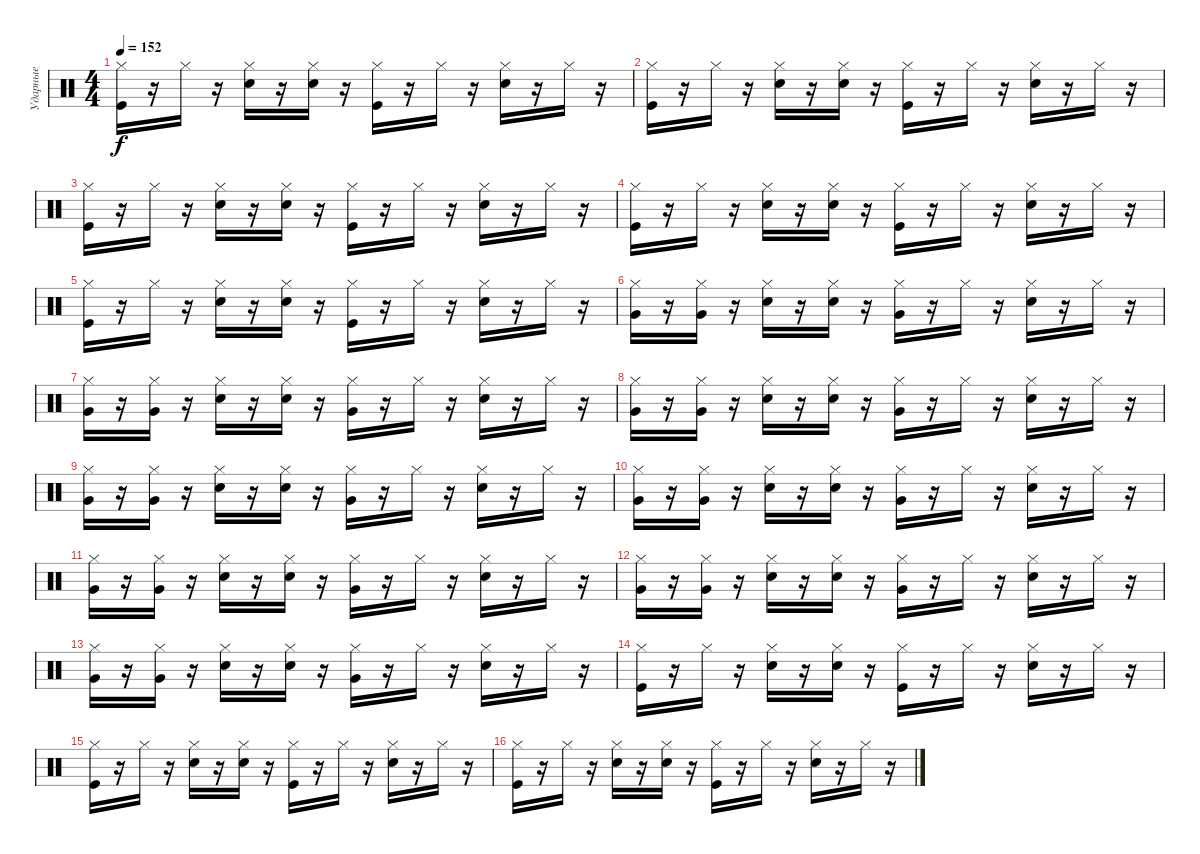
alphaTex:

\track ("Ударные" "Ударные") {instrument percussion}
\staff {score}
\articulation defaults
\ts (4 4)
\tempo 152
\clef neutral
\ks c
("Kick (hit)" "Hi-Hat (closed)").16{dy f} r.16 "Hi-Hat (closed)".16 r.16 ("Hi-Hat (closed)" "Electric Snare (hit)").16 r.16 ("Electric Snare (hit)" "Hi-Hat (closed)").16 r.16 ("Kick (hit)" "Hi-Hat (closed)").16 r.16 "Hi-Hat (closed)".16 r.16 ("Electric Snare (hit)" "Hi-Hat (closed)").16 r.16 "Hi-Hat (closed)".16 r.16 |
("Kick (hit)" "Hi-Hat (closed)").16 r.16 "Hi-Hat (closed)".16 r.16 ("Electric Snare (hit)" "Hi-Hat (closed)").16 r.16 ("Electric Snare (hit)" "Hi-Hat (closed)").16 r.16 ("Kick (hit)" "Hi-Hat (closed)").16 r.16 "Hi-Hat (closed)".16 r.16 ("Electric Snare (hit)" "Hi-Hat (closed)").16 r.16 "Hi-Hat (closed)".16 r.16 |
("Kick (hit)" "Hi-Hat (closed)").16 r.16 "Hi-Hat (closed)".16 r.16 ("Electric Snare (hit)" "Hi-Hat (closed)").16 r.16 ("Electric Snare (hit)" "Hi-Hat (closed)").16 r.16 ("Kick (hit)" "Hi-Hat (closed)").16 r.16 "Hi-Hat (closed)".16 r.16 ("Electric Snare (hit)" "Hi-Hat (closed)").16 r.16 "Hi-Hat (closed)".16 r.16 |
("Hi-Hat (closed)" "Kick (hit)").16 r.16 "Hi-Hat (closed)".16 r.16 ("Electric Snare (hit)" "Hi-Hat (closed)").16 r.16 ("Electric Snare (hit)" "Hi-Hat (closed)").16 r.16 ("Kick (hit)" "Hi-Hat (closed)").16 r.16 "Hi-Hat (closed)".16 r.16 ("Electric Snare (hit)" "Hi-Hat (closed)").16 r.16 "Hi-Hat (closed)".16 r.16 |
("Kick (hit)" "Hi-Hat (closed)").16 r.16 "Hi-Hat (closed)".16 r.16 ("Electric Snare (hit)" "Hi-Hat (closed)").16 r.16 ("Hi-Hat (closed)" "Electric Snare (hit)").16 r.16 ("Kick (hit)" "Hi-Hat (closed)").16 r.16 "Hi-Hat (closed)".16 r.16 ("Electric Snare (hit)" "Hi-Hat (closed)").16 r.16 "Hi-Hat (closed)".16 r.16 |
("Very Low Tom (hit)" "Hi-Hat (closed)").16 r.16 ("Very Low Tom (hit)" "Hi-Hat (closed)").16 r.16 ("Electric Snare (hit)" "Hi-Hat (closed)").16 r.16 ("Electric Snare (hit)" "Hi-Hat (closed)").16 r.16 ("Very Low Tom (hit)" "Hi-Hat (closed)").16 r.16 "Hi-Hat (closed)".16 r.16 ("Hi-Hat (closed)" "Electric Snare (hit)").16 r.16 "Hi-Hat (closed)".16 r.16 |
("Very Low Tom (hit)" "Hi-Hat (closed)").16 r.16 ("Hi-Hat (closed)" "Very Low Tom (hit)").16 r.16 ("Electric Snare (hit)" "Hi-Hat (closed)").16 r.16 ("Electric Snare (hit)" "Hi-Hat (closed)").16 r.16 ("Very Low Tom (hit)" "Hi-Hat (closed)").16 r.16 "Hi-Hat (closed)".16 r.16 ("Electric Snare (hit)" "Hi-Hat (closed)").16 r.16 "Hi-Hat (closed)".16 r.16 |
("Hi-Hat (closed)" "Very Low Tom (hit)").16 r.16 ("Hi-Hat (closed)" "Very Low Tom (hit)").16 r.16 ("Electric Snare (hit)" "Hi-Hat (closed)").16 r.16 ("Electric Snare (hit)" "Hi-Hat (closed)").16 r.16 ("Hi-Hat (closed)" "Very Low Tom (hit)").16 r.16 "Hi-Hat (closed)".16 r.16 ("Electric Snare (hit)" "Hi-Hat (closed)").16 r.16 "Hi-Hat (closed)".16 r.16 |
("Very Low Tom (hit)" "Hi-Hat (closed)").16 r.16 ("Hi-Hat (closed)" "Very Low Tom (hit)").16 r.16 ("Electric Snare (hit)" "Hi-Hat (closed)").16 r.16 ("Electric Snare (hit)" "Hi-Hat (closed)").16 r.16 ("Hi-Hat (closed)" "Very Low Tom (hit)").16 r.16 "Hi-Hat (closed)".16 r.16 ("Electric Snare (hit)" "Hi-Hat (closed)").16 r.16 "Hi-Hat (closed)".16 r.16 |
("Very Low Tom (hit)" "Hi-Hat (closed)").16 r.16 ("Very Low Tom (hit)" "Hi-Hat (closed)").16 r.16 ("Electric Snare (hit)" "Hi-Hat (closed)").16 r.16 ("Electric Snare (hit)" "Hi-Hat (closed)").16 r.16 ("Hi-Hat (closed)" "Very Low Tom (hit)").16 r.16 "Hi-Hat (closed)".16 r.16 ("Electric Snare (hit)" "Hi-Hat (closed)").16 r.16 "Hi-Hat (closed)".16 r.16 |
("Very Low Tom (hit)" "Hi-Hat (closed)").16 r.16 ("Very Low Tom (hit)" "Hi-Hat (closed)").16 r.16 ("Electric Snare (hit)" "Hi-Hat (closed)").16 r.16 ("Electric Snare (hit)" "Hi-Hat (closed)").16 r.16 ("Very Low Tom (hit)" "Hi-Hat (closed)").16 r.16 "Hi-Hat (closed)".16 r.16 ("Electric Snare (hit)" "Hi-Hat (closed)").16 r.16 "Hi-Hat (closed)".16 r.16 |
("Very Low Tom (hit)" "Hi-Hat (closed)").16 r.16 ("Hi-Hat (closed)" "Very Low Tom (hit)").16 r.16 ("Hi-Hat (closed)" "Electric Snare (hit)").16 r.16 ("Electric Snare (hit)" "Hi-Hat (closed)").16 r.16 ("Very Low Tom (hit)" "Hi-Hat (closed)").16 r.16 "Hi-Hat (closed)".16 r.16 ("Electric Snare (hit)" "Hi-Hat (closed)").16 r.16 "Hi-Hat (closed)".16 r.16 |
("Very Low Tom (hit)" "Hi-Hat (closed)").16 r.16 ("Very Low Tom (hit)" "Hi-Hat (closed)").16 r.16 ("Electric Snare (hit)" "Hi-Hat (closed)").16 r.16 ("Electric Snare (hit)" "Hi-Hat (closed)").16 r.16 ("Hi-Hat (closed)" "Very Low Tom (hit)").16 r.16 "Hi-Hat (closed)".16 r.16 ("Electric Snare (hit)" "Hi-Hat (closed)").16 r.16 "Hi-Hat (closed)".16 r.16 |
("Kick (hit)" "Hi-Hat (closed)").16 r.16 "Hi-Hat (closed)".16 r.16 ("Electric Snare (hit)" "Hi-Hat (closed)").16 r.16 ("Electric Snare (hit)" "Hi-Hat (closed)").16 r.16 ("Kick (hit)" "Hi-Hat (closed)").16 r.16 "Hi-Hat (closed)".16 r.16 ("Electric Snare (hit)" "Hi-Hat (closed)").16 r.16 "Hi-Hat (closed)".16 r.16 |
("Hi-Hat (closed)" "Kick (hit)").16 r.16 "Hi-Hat (closed)".16 r.16 ("Electric Snare (hit)" "Hi-Hat (closed)").16 r.16 ("Electric Snare (hit)" "Hi-Hat (closed)").16 r.16 ("Kick (hit)" "Hi-Hat (closed)").16 r.16 "Hi-Hat (closed)".16 r.16 ("Electric Snare (hit)" "Hi-Hat (closed)").16 r.16 "Hi-Hat (closed)".16 r.16 |
("Kick (hit)" "Hi-Hat (closed)").16 r.16 "Hi-Hat (closed)".16 r.16 ("Electric Snare (hit)" "Hi-Hat (closed)").16 r.16 ("Hi-Hat (closed)" "Electric Snare (hit)").16 r.16 ("Kick (hit)" "Hi-Hat (closed)").16 r.16 "Hi-Hat (closed)".16 r.16 ("Electric Snare (hit)" "Hi-Hat (closed)").16 r.16 "Hi-Hat (closed)".16 r.16
